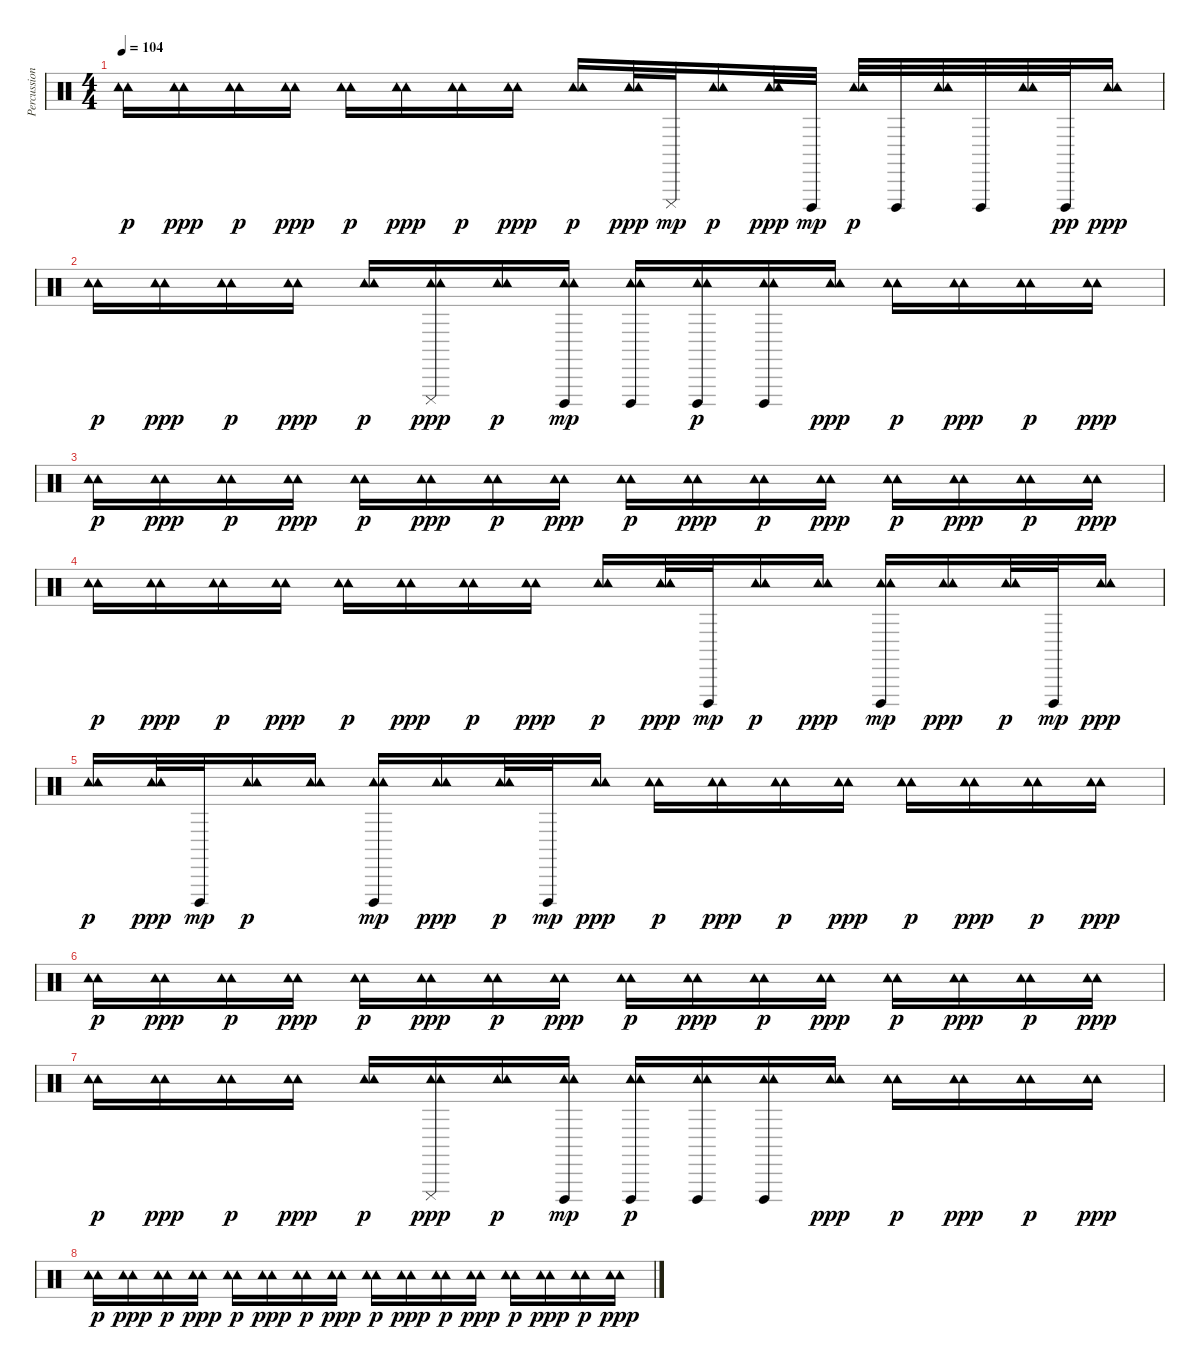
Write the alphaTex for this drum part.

\track ("Percussion & Drums" "Percussion") {instrument percussion}
\staff {score}
\articulation defaults
\ts (4 4)
\tempo 104
\clef neutral
\ks c
("Tambourine (hit)" "Tambourine (hit)").16{dy p} ("Tambourine (hit)" "Tambourine (hit)").16{dy ppp} ("Tambourine (hit)" "Tambourine (hit)").16{dy p} ("Tambourine (hit)" "Tambourine (hit)").16{dy ppp} ("Tambourine (hit)" "Tambourine (hit)").16{dy p} ("Tambourine (hit)" "Tambourine (hit)").16{dy ppp} ("Tambourine (hit)" "Tambourine (hit)").16{dy p} ("Tambourine (hit)" "Tambourine (hit)").16{dy ppp} ("Tambourine (hit)" "Tambourine (hit)").16{dy p} ("Tambourine (hit)" "Tambourine (hit)").32{dy ppp} "Cuica (mute)".32{dy mp} ("Tambourine (hit)" "Tambourine (hit)").16{dy p} ("Tambourine (hit)" "Tambourine (hit)").32{dy ppp} "Cuica (open)".32{dy mp} ("Tambourine (hit)" "Tambourine (hit)").32{dy p} "Cuica (open)".32 ("Tambourine (hit)" "Tambourine (hit)").32 "Cuica (open)".32 ("Tambourine (hit)" "Tambourine (hit)").32 "Cuica (open)".32{dy pp} ("Tambourine (hit)" "Tambourine (hit)").16{dy ppp} |
("Tambourine (hit)" "Tambourine (hit)").16{dy p} ("Tambourine (hit)" "Tambourine (hit)").16{dy ppp} ("Tambourine (hit)" "Tambourine (hit)").16{dy p} ("Tambourine (hit)" "Tambourine (hit)").16{dy ppp} ("Tambourine (hit)" "Tambourine (hit)").16{dy p} ("Cuica (mute)" "Tambourine (hit)" "Tambourine (hit)").16{dy ppp} ("Tambourine (hit)" "Tambourine (hit)").16{dy p} ("Tambourine (hit)" "Tambourine (hit)" "Cuica (open)").16{dy mp} ("Cuica (open)" "Tambourine (hit)" "Tambourine (hit)").16 ("Cuica (open)" "Tambourine (hit)" "Tambourine (hit)").16{dy p} ("Tambourine (hit)" "Tambourine (hit)" "Cuica (open)").16 ("Tambourine (hit)" "Tambourine (hit)").16{dy ppp} ("Tambourine (hit)" "Tambourine (hit)").16{dy p} ("Tambourine (hit)" "Tambourine (hit)").16{dy ppp} ("Tambourine (hit)" "Tambourine (hit)").16{dy p} ("Tambourine (hit)" "Tambourine (hit)").16{dy ppp} |
("Tambourine (hit)" "Tambourine (hit)").16{dy p} ("Tambourine (hit)" "Tambourine (hit)").16{dy ppp} ("Tambourine (hit)" "Tambourine (hit)").16{dy p} ("Tambourine (hit)" "Tambourine (hit)").16{dy ppp} ("Tambourine (hit)" "Tambourine (hit)").16{dy p} ("Tambourine (hit)" "Tambourine (hit)").16{dy ppp} ("Tambourine (hit)" "Tambourine (hit)").16{dy p} ("Tambourine (hit)" "Tambourine (hit)").16{dy ppp} ("Tambourine (hit)" "Tambourine (hit)").16{dy p} ("Tambourine (hit)" "Tambourine (hit)").16{dy ppp} ("Tambourine (hit)" "Tambourine (hit)").16{dy p} ("Tambourine (hit)" "Tambourine (hit)").16{dy ppp} ("Tambourine (hit)" "Tambourine (hit)").16{dy p} ("Tambourine (hit)" "Tambourine (hit)").16{dy ppp} ("Tambourine (hit)" "Tambourine (hit)").16{dy p} ("Tambourine (hit)" "Tambourine (hit)").16{dy ppp} |
("Tambourine (hit)" "Tambourine (hit)").16{dy p} ("Tambourine (hit)" "Tambourine (hit)").16{dy ppp} ("Tambourine (hit)" "Tambourine (hit)").16{dy p} ("Tambourine (hit)" "Tambourine (hit)").16{dy ppp} ("Tambourine (hit)" "Tambourine (hit)").16{dy p} ("Tambourine (hit)" "Tambourine (hit)").16{dy ppp} ("Tambourine (hit)" "Tambourine (hit)").16{dy p} ("Tambourine (hit)" "Tambourine (hit)").16{dy ppp} ("Tambourine (hit)" "Tambourine (hit)").16{dy p} ("Tambourine (hit)" "Tambourine (hit)").32{dy ppp} "Cuica (open)".32{dy mp} ("Tambourine (hit)" "Tambourine (hit)").16{dy p} ("Tambourine (hit)" "Tambourine (hit)").16{dy ppp} ("Tambourine (hit)" "Tambourine (hit)" "Cuica (open)").16{dy mp} ("Tambourine (hit)" "Tambourine (hit)").16{dy ppp} ("Tambourine (hit)" "Tambourine (hit)").32{dy p} "Cuica (open)".32{dy mp} ("Tambourine (hit)" "Tambourine (hit)").16{dy ppp} |
("Tambourine (hit)" "Tambourine (hit)").16{dy p} ("Tambourine (hit)" "Tambourine (hit)").32{dy ppp} "Cuica (open)".32{dy mp} ("Tambourine (hit)" "Tambourine (hit)").16{dy p} ("Tambourine (hit)" "Tambourine (hit)").16 ("Tambourine (hit)" "Tambourine (hit)" "Cuica (open)").16{dy mp} ("Tambourine (hit)" "Tambourine (hit)").16{dy ppp} ("Tambourine (hit)" "Tambourine (hit)").32{dy p} "Cuica (open)".32{dy mp} ("Tambourine (hit)" "Tambourine (hit)").16{dy ppp} ("Tambourine (hit)" "Tambourine (hit)").16{dy p} ("Tambourine (hit)" "Tambourine (hit)").16{dy ppp} ("Tambourine (hit)" "Tambourine (hit)").16{dy p} ("Tambourine (hit)" "Tambourine (hit)").16{dy ppp} ("Tambourine (hit)" "Tambourine (hit)").16{dy p} ("Tambourine (hit)" "Tambourine (hit)").16{dy ppp} ("Tambourine (hit)" "Tambourine (hit)").16{dy p} ("Tambourine (hit)" "Tambourine (hit)").16{dy ppp} |
("Tambourine (hit)" "Tambourine (hit)").16{dy p} ("Tambourine (hit)" "Tambourine (hit)").16{dy ppp} ("Tambourine (hit)" "Tambourine (hit)").16{dy p} ("Tambourine (hit)" "Tambourine (hit)").16{dy ppp} ("Tambourine (hit)" "Tambourine (hit)").16{dy p} ("Tambourine (hit)" "Tambourine (hit)").16{dy ppp} ("Tambourine (hit)" "Tambourine (hit)").16{dy p} ("Tambourine (hit)" "Tambourine (hit)").16{dy ppp} ("Tambourine (hit)" "Tambourine (hit)").16{dy p} ("Tambourine (hit)" "Tambourine (hit)").16{dy ppp} ("Tambourine (hit)" "Tambourine (hit)").16{dy p} ("Tambourine (hit)" "Tambourine (hit)").16{dy ppp} ("Tambourine (hit)" "Tambourine (hit)").16{dy p} ("Tambourine (hit)" "Tambourine (hit)").16{dy ppp} ("Tambourine (hit)" "Tambourine (hit)").16{dy p} ("Tambourine (hit)" "Tambourine (hit)").16{dy ppp} |
("Tambourine (hit)" "Tambourine (hit)").16{dy p} ("Tambourine (hit)" "Tambourine (hit)").16{dy ppp} ("Tambourine (hit)" "Tambourine (hit)").16{dy p} ("Tambourine (hit)" "Tambourine (hit)").16{dy ppp} ("Tambourine (hit)" "Tambourine (hit)").16{dy p} ("Cuica (mute)" "Tambourine (hit)" "Tambourine (hit)").16{dy ppp} ("Tambourine (hit)" "Tambourine (hit)").16{dy p} ("Cuica (open)" "Tambourine (hit)" "Tambourine (hit)").16{dy mp} ("Tambourine (hit)" "Tambourine (hit)" "Cuica (open)").16{dy p} ("Tambourine (hit)" "Tambourine (hit)" "Cuica (open)").16 ("Cuica (open)" "Tambourine (hit)" "Tambourine (hit)").16 ("Tambourine (hit)" "Tambourine (hit)").16{dy ppp} ("Tambourine (hit)" "Tambourine (hit)").16{dy p} ("Tambourine (hit)" "Tambourine (hit)").16{dy ppp} ("Tambourine (hit)" "Tambourine (hit)").16{dy p} ("Tambourine (hit)" "Tambourine (hit)").16{dy ppp} |
("Tambourine (hit)" "Tambourine (hit)").16{dy p} ("Tambourine (hit)" "Tambourine (hit)").16{dy ppp} ("Tambourine (hit)" "Tambourine (hit)").16{dy p} ("Tambourine (hit)" "Tambourine (hit)").16{dy ppp} ("Tambourine (hit)" "Tambourine (hit)").16{dy p} ("Tambourine (hit)" "Tambourine (hit)").16{dy ppp} ("Tambourine (hit)" "Tambourine (hit)").16{dy p} ("Tambourine (hit)" "Tambourine (hit)").16{dy ppp} ("Tambourine (hit)" "Tambourine (hit)").16{dy p} ("Tambourine (hit)" "Tambourine (hit)").16{dy ppp} ("Tambourine (hit)" "Tambourine (hit)").16{dy p} ("Tambourine (hit)" "Tambourine (hit)").16{dy ppp} ("Tambourine (hit)" "Tambourine (hit)").16{dy p} ("Tambourine (hit)" "Tambourine (hit)").16{dy ppp} ("Tambourine (hit)" "Tambourine (hit)").16{dy p} ("Tambourine (hit)" "Tambourine (hit)").16{dy ppp}
